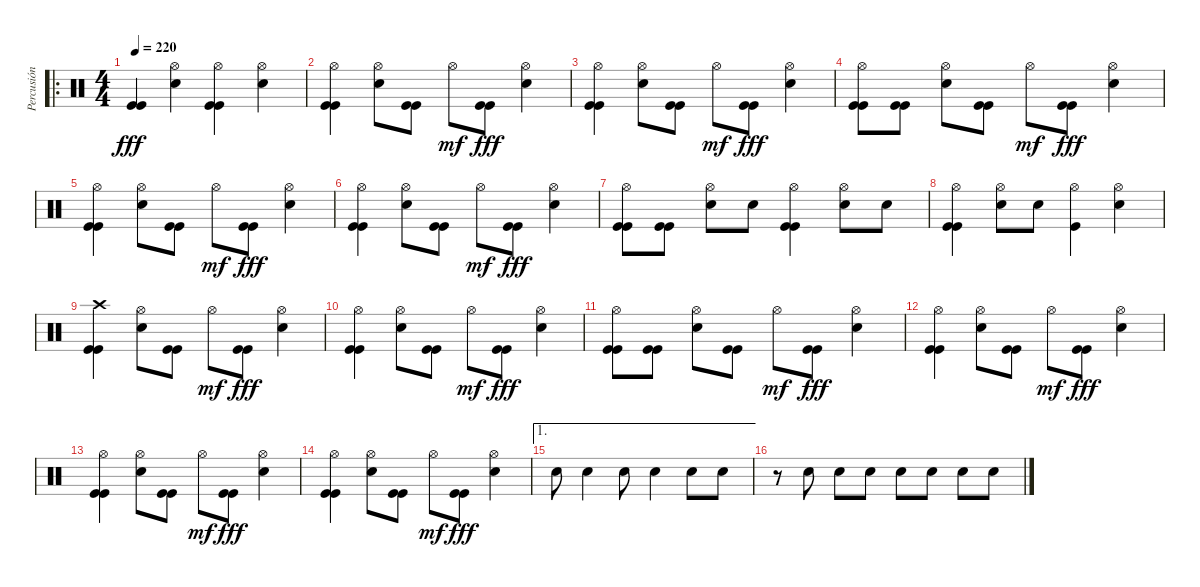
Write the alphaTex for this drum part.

\track ("Percusión" "Percusión") {instrument percussion}
\staff {score}
\articulation defaults
\ro
\ts (4 4)
\tempo 220
\clef neutral
\ks c
("Kick (hit)" "Kick (hit)").4{dy fff} ("Hi-Hat (open)" "Snare (hit) 2").4 ("Hi-Hat (open)" "Kick (hit)" "Kick (hit)").4 ("Hi-Hat (open)" "Snare (hit) 2").4 |
("Hi-Hat (open)" "Kick (hit)" "Kick (hit)").4 ("Hi-Hat (open)" "Snare (hit) 2").8 ("Kick (hit)" "Kick (hit)").8 "Hi-Hat (open)".8{dy mf} ("Kick (hit)" "Kick (hit)").8{dy fff} ("Hi-Hat (open)" "Snare (hit) 2").4 |
("Hi-Hat (open)" "Kick (hit)" "Kick (hit)").4 ("Hi-Hat (open)" "Snare (hit) 2").8 ("Kick (hit)" "Kick (hit)").8 "Hi-Hat (open)".8{dy mf} ("Kick (hit)" "Kick (hit)").8{dy fff} ("Hi-Hat (open)" "Snare (hit) 2").4 |
("Hi-Hat (open)" "Kick (hit)" "Kick (hit)").8 ("Kick (hit)" "Kick (hit)").8 ("Hi-Hat (open)" "Snare (hit) 2").8 ("Kick (hit)" "Kick (hit)").8 "Hi-Hat (open)".8{dy mf} ("Kick (hit)" "Kick (hit)").8{dy fff} ("Hi-Hat (open)" "Snare (hit) 2").4 |
("Hi-Hat (open)" "Kick (hit)" "Kick (hit)").4 ("Hi-Hat (open)" "Snare (hit) 2").8 ("Kick (hit)" "Kick (hit)").8 "Hi-Hat (open)".8{dy mf} ("Kick (hit)" "Kick (hit)").8{dy fff} ("Hi-Hat (open)" "Snare (hit) 2").4 |
("Hi-Hat (open)" "Kick (hit)" "Kick (hit)").4 ("Hi-Hat (open)" "Snare (hit) 2").8 ("Kick (hit)" "Kick (hit)").8 "Hi-Hat (open)".8{dy mf} ("Kick (hit)" "Kick (hit)").8{dy fff} ("Hi-Hat (open)" "Snare (hit) 2").4 |
("Hi-Hat (open)" "Kick (hit)" "Kick (hit)").8 ("Kick (hit)" "Kick (hit)").8 ("Hi-Hat (open)" "Snare (hit) 2").8 "Snare (hit) 2".8 ("Hi-Hat (open)" "Kick (hit)" "Kick (hit)").4 ("Hi-Hat (open)" "Snare (hit) 2").8 "Snare (hit) 2".8 |
("Hi-Hat (open)" "Kick (hit)" "Kick (hit)").4 ("Hi-Hat (open)" "Snare (hit) 2").8 "Snare (hit) 2".8 ("Hi-Hat (open)" "Kick (hit)").4 ("Hi-Hat (open)" "Snare (hit) 2").4 |
("Crash high (hit)" "Kick (hit)" "Kick (hit)").4 ("Hi-Hat (open)" "Snare (hit) 2").8 ("Kick (hit)" "Kick (hit)").8 "Hi-Hat (open)".8{dy mf} ("Kick (hit)" "Kick (hit)").8{dy fff} ("Hi-Hat (open)" "Snare (hit) 2").4 |
("Hi-Hat (open)" "Kick (hit)" "Kick (hit)").4 ("Hi-Hat (open)" "Snare (hit) 2").8 ("Kick (hit)" "Kick (hit)").8 "Hi-Hat (open)".8{dy mf} ("Kick (hit)" "Kick (hit)").8{dy fff} ("Hi-Hat (open)" "Snare (hit) 2").4 |
("Hi-Hat (open)" "Kick (hit)" "Kick (hit)").8 ("Kick (hit)" "Kick (hit)").8 ("Hi-Hat (open)" "Snare (hit) 2").8 ("Kick (hit)" "Kick (hit)").8 "Hi-Hat (open)".8{dy mf} ("Kick (hit)" "Kick (hit)").8{dy fff} ("Hi-Hat (open)" "Snare (hit) 2").4 |
("Hi-Hat (open)" "Kick (hit)" "Kick (hit)").4 ("Hi-Hat (open)" "Snare (hit) 2").8 ("Kick (hit)" "Kick (hit)").8 "Hi-Hat (open)".8{dy mf} ("Kick (hit)" "Kick (hit)").8{dy fff} ("Hi-Hat (open)" "Snare (hit) 2").4 |
("Hi-Hat (open)" "Kick (hit)" "Kick (hit)").4 ("Hi-Hat (open)" "Snare (hit) 2").8 ("Kick (hit)" "Kick (hit)").8 "Hi-Hat (open)".8{dy mf} ("Kick (hit)" "Kick (hit)").8{dy fff} ("Hi-Hat (open)" "Snare (hit) 2").4 |
("Hi-Hat (open)" "Kick (hit)" "Kick (hit)").4 ("Hi-Hat (open)" "Snare (hit) 2").8 ("Kick (hit)" "Kick (hit)").8 "Hi-Hat (open)".8{dy mf} ("Kick (hit)" "Kick (hit)").8{dy fff} ("Hi-Hat (open)" "Snare (hit) 2").4 |
\ae 1 "Snare (hit) 2".8 "Snare (hit) 2".4 "Snare (hit) 2".8 "Snare (hit) 2".4 "Snare (hit) 2".8 "Snare (hit) 2".8
|
r.8 "Snare (hit) 2".8 "Snare (hit) 2".8 "Snare (hit) 2".8 "Snare (hit) 2".8 "Snare (hit) 2".8 "Snare (hit) 2".8 "Snare (hit) 2".8
